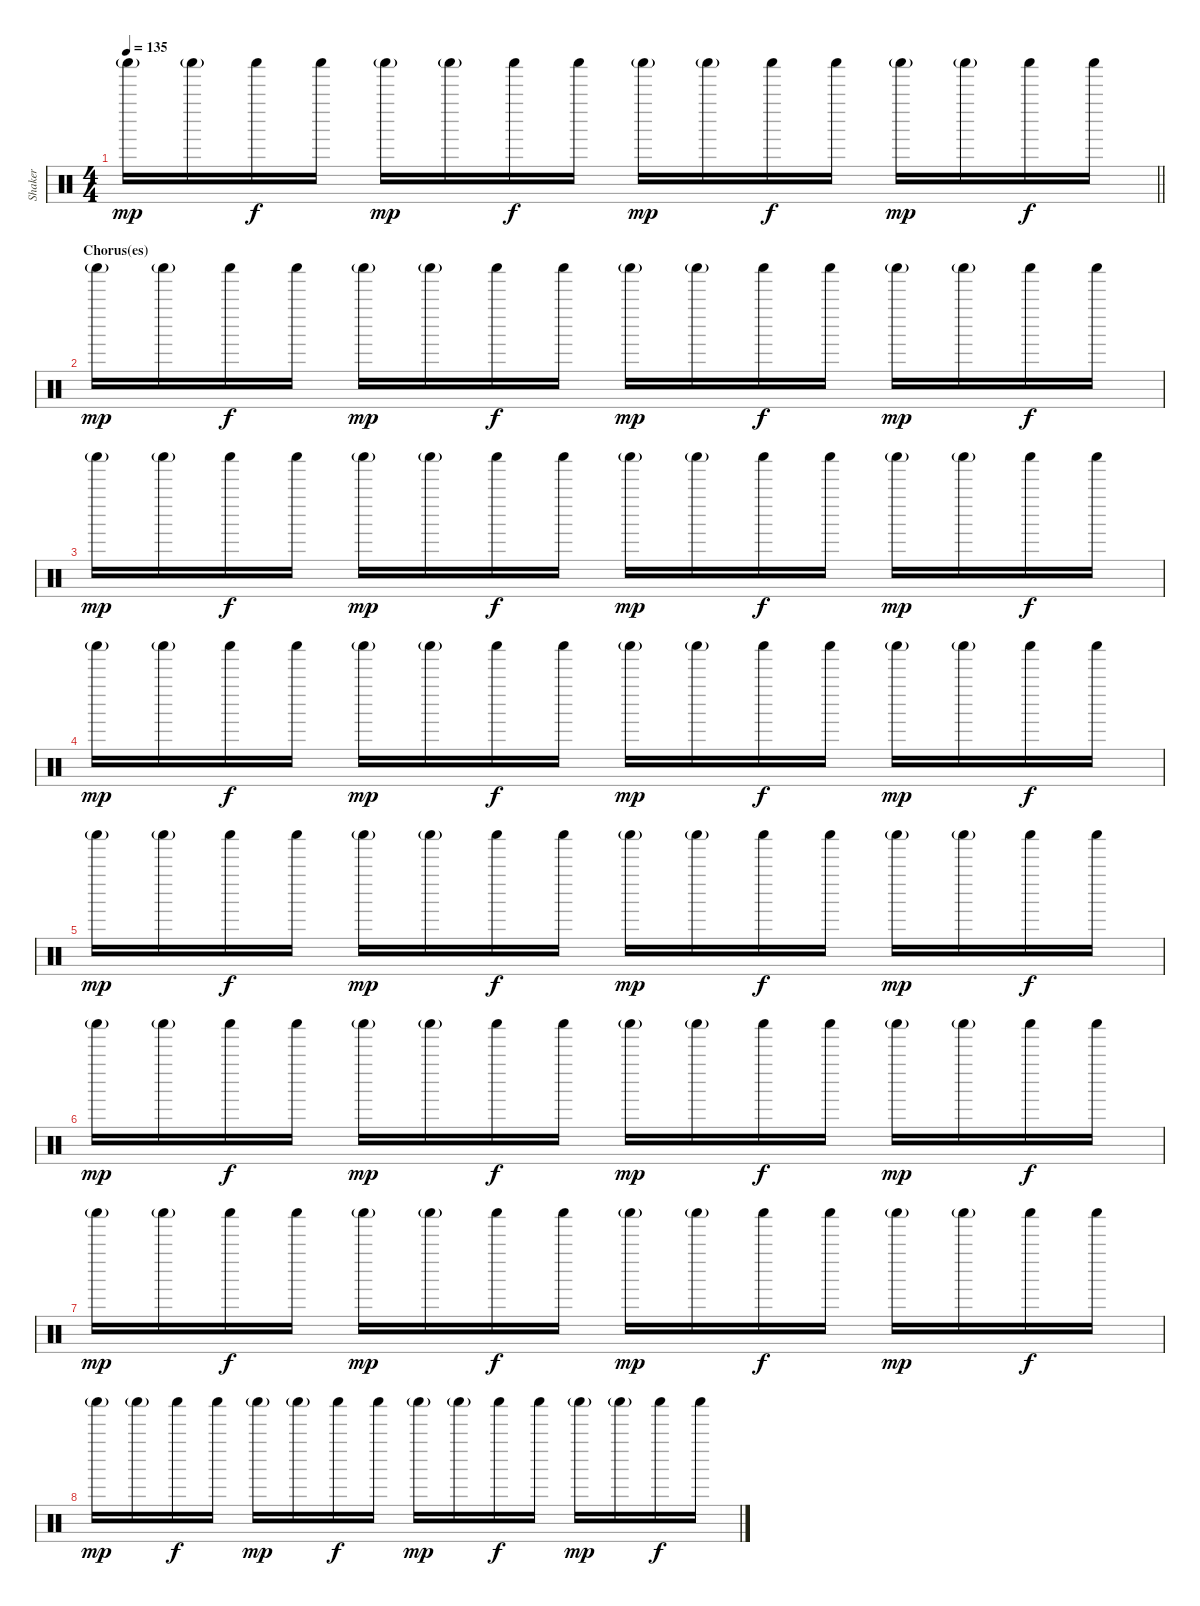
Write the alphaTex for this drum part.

\track ("Shaker" "Shaker") {instrument percussion}
\staff {score}
\articulation defaults
\ts (4 4)
\tempo 135
\clef neutral
\barLineRight lightlight
\ks c "Shaker (hit)"{g}.16{dy mp} "Shaker (hit)"{g}.16 "Shaker (hit)".16{dy f} "Shaker (hit)".16 "Shaker (hit)"{g}.16{dy mp} "Shaker (hit)"{g}.16 "Shaker (hit)".16{dy f} "Shaker (hit)".16 "Shaker (hit)"{g}.16{dy mp} "Shaker (hit)"{g}.16 "Shaker (hit)".16{dy f} "Shaker (hit)".16 "Shaker (hit)"{g}.16{dy mp} "Shaker (hit)"{g}.16 "Shaker (hit)".16{dy f} "Shaker (hit)".16
|
\section ("" "Chorus(es)")
"Shaker (hit)"{g}.16{dy mp} "Shaker (hit)"{g}.16 "Shaker (hit)".16{dy f} "Shaker (hit)".16 "Shaker (hit)"{g}.16{dy mp} "Shaker (hit)"{g}.16 "Shaker (hit)".16{dy f} "Shaker (hit)".16 "Shaker (hit)"{g}.16{dy mp} "Shaker (hit)"{g}.16 "Shaker (hit)".16{dy f} "Shaker (hit)".16 "Shaker (hit)"{g}.16{dy mp} "Shaker (hit)"{g}.16 "Shaker (hit)".16{dy f} "Shaker (hit)".16 |
"Shaker (hit)"{g}.16{dy mp} "Shaker (hit)"{g}.16 "Shaker (hit)".16{dy f} "Shaker (hit)".16 "Shaker (hit)"{g}.16{dy mp} "Shaker (hit)"{g}.16 "Shaker (hit)".16{dy f} "Shaker (hit)".16 "Shaker (hit)"{g}.16{dy mp} "Shaker (hit)"{g}.16 "Shaker (hit)".16{dy f} "Shaker (hit)".16 "Shaker (hit)"{g}.16{dy mp} "Shaker (hit)"{g}.16 "Shaker (hit)".16{dy f} "Shaker (hit)".16 |
"Shaker (hit)"{g}.16{dy mp} "Shaker (hit)"{g}.16 "Shaker (hit)".16{dy f} "Shaker (hit)".16 "Shaker (hit)"{g}.16{dy mp} "Shaker (hit)"{g}.16 "Shaker (hit)".16{dy f} "Shaker (hit)".16 "Shaker (hit)"{g}.16{dy mp} "Shaker (hit)"{g}.16 "Shaker (hit)".16{dy f} "Shaker (hit)".16 "Shaker (hit)"{g}.16{dy mp} "Shaker (hit)"{g}.16 "Shaker (hit)".16{dy f} "Shaker (hit)".16 |
"Shaker (hit)"{g}.16{dy mp} "Shaker (hit)"{g}.16 "Shaker (hit)".16{dy f} "Shaker (hit)".16 "Shaker (hit)"{g}.16{dy mp} "Shaker (hit)"{g}.16 "Shaker (hit)".16{dy f} "Shaker (hit)".16 "Shaker (hit)"{g}.16{dy mp} "Shaker (hit)"{g}.16 "Shaker (hit)".16{dy f} "Shaker (hit)".16 "Shaker (hit)"{g}.16{dy mp} "Shaker (hit)"{g}.16 "Shaker (hit)".16{dy f} "Shaker (hit)".16 |
"Shaker (hit)"{g}.16{dy mp} "Shaker (hit)"{g}.16 "Shaker (hit)".16{dy f} "Shaker (hit)".16 "Shaker (hit)"{g}.16{dy mp} "Shaker (hit)"{g}.16 "Shaker (hit)".16{dy f} "Shaker (hit)".16 "Shaker (hit)"{g}.16{dy mp} "Shaker (hit)"{g}.16 "Shaker (hit)".16{dy f} "Shaker (hit)".16 "Shaker (hit)"{g}.16{dy mp} "Shaker (hit)"{g}.16 "Shaker (hit)".16{dy f} "Shaker (hit)".16 |
"Shaker (hit)"{g}.16{dy mp} "Shaker (hit)"{g}.16 "Shaker (hit)".16{dy f} "Shaker (hit)".16 "Shaker (hit)"{g}.16{dy mp} "Shaker (hit)"{g}.16 "Shaker (hit)".16{dy f} "Shaker (hit)".16 "Shaker (hit)"{g}.16{dy mp} "Shaker (hit)"{g}.16 "Shaker (hit)".16{dy f} "Shaker (hit)".16 "Shaker (hit)"{g}.16{dy mp} "Shaker (hit)"{g}.16 "Shaker (hit)".16{dy f} "Shaker (hit)".16 |
"Shaker (hit)"{g}.16{dy mp} "Shaker (hit)"{g}.16 "Shaker (hit)".16{dy f} "Shaker (hit)".16 "Shaker (hit)"{g}.16{dy mp} "Shaker (hit)"{g}.16 "Shaker (hit)".16{dy f} "Shaker (hit)".16 "Shaker (hit)"{g}.16{dy mp} "Shaker (hit)"{g}.16 "Shaker (hit)".16{dy f} "Shaker (hit)".16 "Shaker (hit)"{g}.16{dy mp} "Shaker (hit)"{g}.16 "Shaker (hit)".16{dy f} "Shaker (hit)".16
